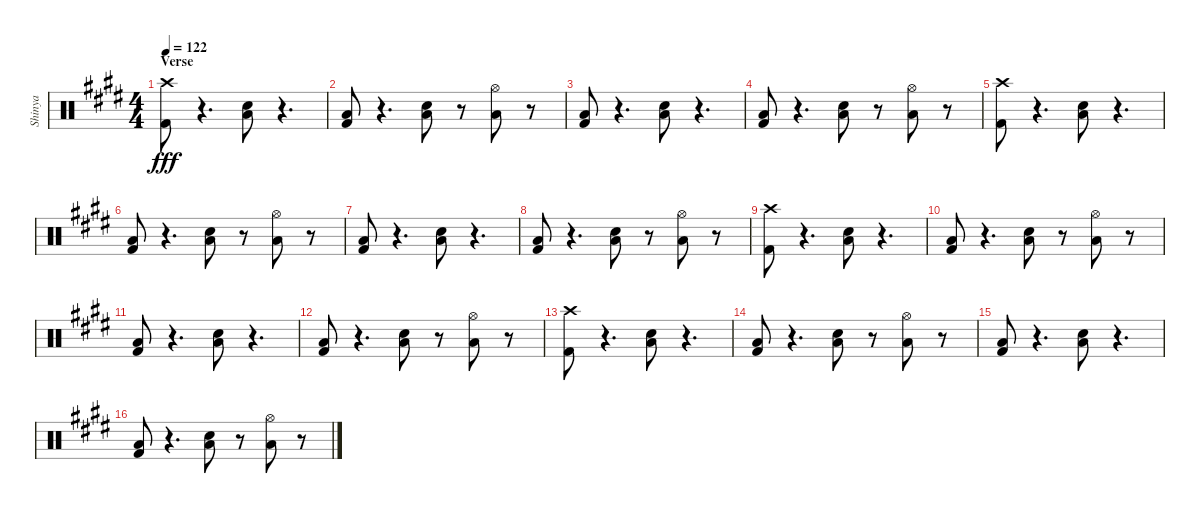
\track ("Shinya" "Shinya") {instrument percussion}
\staff {score}
\articulation defaults
\ts (4 4)
\section ("" "Verse")
\tempo 122
\clef neutral
\ks c#minor
("Kick (hit) 2" "Crash high (hit)").8{dy fff} r.4{d} ("Snare (hit) 2" "Low Tom (hit)").8 r.4{d} |
("Kick (hit) 2" "Low Tom (hit)").8 r.4{d} ("Snare (hit) 2" "Low Tom (hit)").8 r.8 ("Low Tom (hit)" "Hi-Hat (open)").8 r.8 |
("Kick (hit) 2" "Low Tom (hit)").8 r.4{d} ("Snare (hit) 2" "Low Tom (hit)").8 r.4{d} |
("Kick (hit) 2" "Low Tom (hit)").8 r.4{d} ("Snare (hit) 2" "Low Tom (hit)").8 r.8 ("Low Tom (hit)" "Hi-Hat (open)").8 r.8 |
("Kick (hit) 2" "Crash high (hit)").8 r.4{d} ("Snare (hit) 2" "Low Tom (hit)").8 r.4{d} |
("Kick (hit) 2" "Low Tom (hit)").8 r.4{d} ("Snare (hit) 2" "Low Tom (hit)").8 r.8 ("Low Tom (hit)" "Hi-Hat (open)").8 r.8 |
("Kick (hit) 2" "Low Tom (hit)").8 r.4{d} ("Snare (hit) 2" "Low Tom (hit)").8 r.4{d} |
("Kick (hit) 2" "Low Tom (hit)").8 r.4{d} ("Snare (hit) 2" "Low Tom (hit)").8 r.8 ("Low Tom (hit)" "Hi-Hat (open)").8 r.8 |
("Kick (hit) 2" "Crash high (hit)").8 r.4{d} ("Snare (hit) 2" "Low Tom (hit)").8 r.4{d} |
("Kick (hit) 2" "Low Tom (hit)").8 r.4{d} ("Snare (hit) 2" "Low Tom (hit)").8 r.8 ("Low Tom (hit)" "Hi-Hat (open)").8 r.8 |
("Kick (hit) 2" "Low Tom (hit)").8 r.4{d} ("Snare (hit) 2" "Low Tom (hit)").8 r.4{d} |
("Kick (hit) 2" "Low Tom (hit)").8 r.4{d} ("Snare (hit) 2" "Low Tom (hit)").8 r.8 ("Low Tom (hit)" "Hi-Hat (open)").8 r.8 |
("Kick (hit) 2" "Crash high (hit)").8 r.4{d} ("Snare (hit) 2" "Low Tom (hit)").8 r.4{d} |
("Kick (hit) 2" "Low Tom (hit)").8 r.4{d} ("Snare (hit) 2" "Low Tom (hit)").8 r.8 ("Low Tom (hit)" "Hi-Hat (open)").8 r.8 |
("Kick (hit) 2" "Low Tom (hit)").8 r.4{d} ("Snare (hit) 2" "Low Tom (hit)").8 r.4{d} |
("Kick (hit) 2" "Low Tom (hit)").8 r.4{d} ("Snare (hit) 2" "Low Tom (hit)").8 r.8 ("Low Tom (hit)" "Hi-Hat (open)").8 r.8
